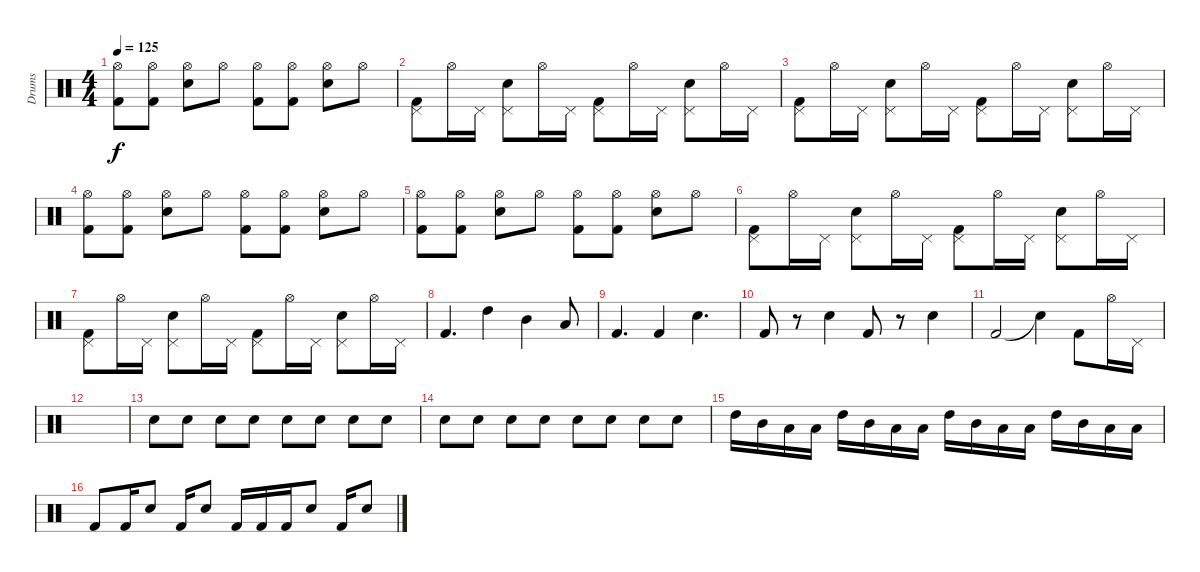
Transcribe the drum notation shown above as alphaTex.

\track ("Drums" "Drums") {instrument percussion}
\staff {score}
\articulation defaults
\ts (4 4)
\tempo 125
\clef neutral
\ks c
("Hi-Hat (open)" "Kick (hit) 2").8{dy f} ("Hi-Hat (open)" "Kick (hit) 2").8 ("Hi-Hat (open)" "Snare (hit) 2").8 "Hi-Hat (open)".8 ("Hi-Hat (open)" "Kick (hit) 2").8 ("Hi-Hat (open)" "Kick (hit) 2").8 ("Hi-Hat (open)" "Snare (hit) 2").8 "Hi-Hat (open)".8 |
("Pedal Hi-Hat (hit)" "Kick (hit) 2").8 "Hi-Hat (open)".16 "Pedal Hi-Hat (hit)".16 ("Pedal Hi-Hat (hit)" "Snare (hit) 2").8 "Hi-Hat (open)".16 "Pedal Hi-Hat (hit)".16 ("Pedal Hi-Hat (hit)" "Kick (hit) 2").8 "Hi-Hat (open)".16 "Pedal Hi-Hat (hit)".16 ("Pedal Hi-Hat (hit)" "Snare (hit) 2").8 "Hi-Hat (open)".16 "Pedal Hi-Hat (hit)".16 |
("Pedal Hi-Hat (hit)" "Kick (hit) 2").8 "Hi-Hat (open)".16 "Pedal Hi-Hat (hit)".16 ("Pedal Hi-Hat (hit)" "Snare (hit) 2").8 "Hi-Hat (open)".16 "Pedal Hi-Hat (hit)".16 ("Pedal Hi-Hat (hit)" "Kick (hit) 2").8 "Hi-Hat (open)".16 "Pedal Hi-Hat (hit)".16 ("Pedal Hi-Hat (hit)" "Snare (hit) 2").8 "Hi-Hat (open)".16 "Pedal Hi-Hat (hit)".16 |
("Hi-Hat (open)" "Kick (hit) 2").8 ("Hi-Hat (open)" "Kick (hit) 2").8 ("Hi-Hat (open)" "Snare (hit) 2").8 "Hi-Hat (open)".8 ("Hi-Hat (open)" "Kick (hit) 2").8 ("Hi-Hat (open)" "Kick (hit) 2").8 ("Hi-Hat (open)" "Snare (hit) 2").8 "Hi-Hat (open)".8 |
("Hi-Hat (open)" "Kick (hit) 2").8 ("Hi-Hat (open)" "Kick (hit) 2").8 ("Hi-Hat (open)" "Snare (hit) 2").8 "Hi-Hat (open)".8 ("Hi-Hat (open)" "Kick (hit) 2").8 ("Hi-Hat (open)" "Kick (hit) 2").8 ("Hi-Hat (open)" "Snare (hit) 2").8 "Hi-Hat (open)".8 |
("Pedal Hi-Hat (hit)" "Kick (hit) 2").8 "Hi-Hat (open)".16 "Pedal Hi-Hat (hit)".16 ("Pedal Hi-Hat (hit)" "Snare (hit) 2").8 "Hi-Hat (open)".16 "Pedal Hi-Hat (hit)".16 ("Pedal Hi-Hat (hit)" "Kick (hit) 2").8 "Hi-Hat (open)".16 "Pedal Hi-Hat (hit)".16 ("Pedal Hi-Hat (hit)" "Snare (hit) 2").8 "Hi-Hat (open)".16 "Pedal Hi-Hat (hit)".16 |
("Pedal Hi-Hat (hit)" "Kick (hit) 2").8 "Hi-Hat (open)".16 "Pedal Hi-Hat (hit)".16 ("Pedal Hi-Hat (hit)" "Snare (hit) 2").8 "Hi-Hat (open)".16 "Pedal Hi-Hat (hit)".16 ("Pedal Hi-Hat (hit)" "Kick (hit) 2").8 "Hi-Hat (open)".16 "Pedal Hi-Hat (hit)".16 ("Pedal Hi-Hat (hit)" "Snare (hit) 2").8 "Hi-Hat (open)".16 "Pedal Hi-Hat (hit)".16 |
"Kick (hit) 2".4{d} "High Tom (hit)".4 "Mid Tom (hit)".4 "Low Tom (hit)".8 |
"Kick (hit) 2".4{d} "Kick (hit) 2".4 "Snare (hit) 2".4{d} |
"Kick (hit) 2".8 r.8 "Snare (hit) 2".4 "Kick (hit) 2".8 r.8 "Snare (hit) 2".4 |
"Kick (hit) 2".2 "Snare (hit)"{t}.4 "Kick (hit) 2".8 "Hi-Hat (open)".16 "Pedal Hi-Hat (hit)".16 |
|
"Snare (hit) 2".8 "Snare (hit) 2".8 "Snare (hit) 2".8 "Snare (hit) 2".8 "Snare (hit) 2".8 "Snare (hit) 2".8 "Snare (hit) 2".8 "Snare (hit) 2".8 |
"Snare (hit) 2".8 "Snare (hit) 2".8 "Snare (hit) 2".8 "Snare (hit) 2".8 "Snare (hit) 2".8 "Snare (hit) 2".8 "Snare (hit) 2".8 "Snare (hit) 2".8 |
"High Tom (hit)".16 "Mid Tom (hit)".16 "Low Tom (hit)".16 "Low Tom (hit)".16 "High Tom (hit)".16 "Mid Tom (hit)".16 "Low Tom (hit)".16 "Low Tom (hit)".16 "High Tom (hit)".16 "Mid Tom (hit)".16 "Low Tom (hit)".16 "Low Tom (hit)".16 "High Tom (hit)".16 "Mid Tom (hit)".16 "Low Tom (hit)".16 "Low Tom (hit)".16 |
"Kick (hit) 2".8 "Kick (hit) 2".16 "Snare (hit) 2".8 "Kick (hit) 2".16 "Snare (hit) 2".8 "Kick (hit) 2".16 "Kick (hit) 2".16 "Kick (hit) 2".16 "Snare (hit) 2".8 "Kick (hit) 2".16 "Snare (hit) 2".8
